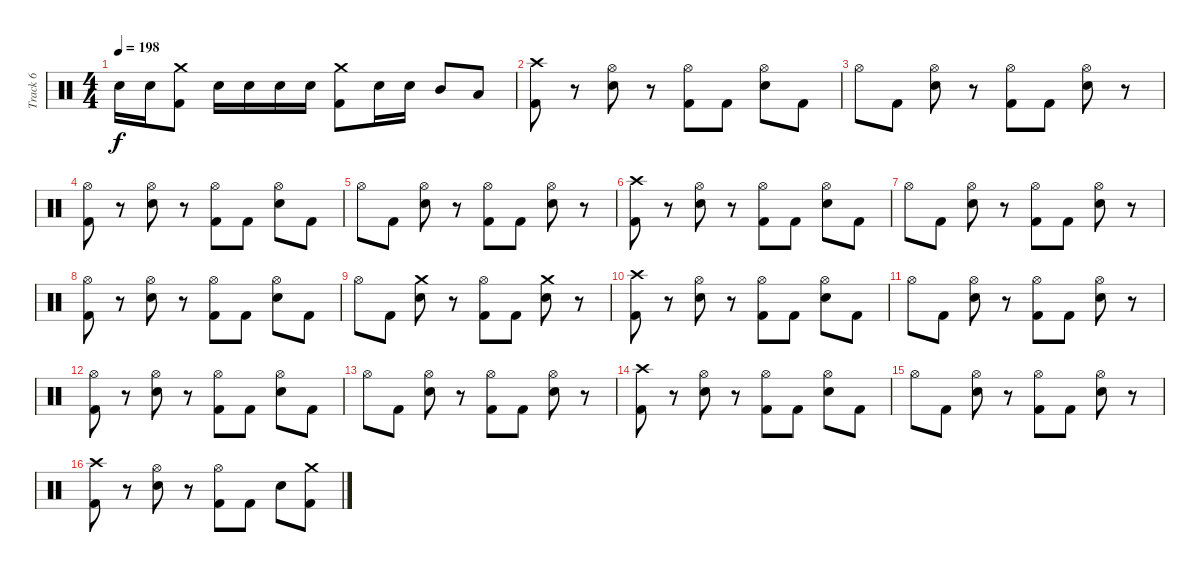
\track ("Track 6" "Track 6") {instrument percussion}
\staff {score}
\articulation defaults
\ts (4 4)
\tempo 198
\clef neutral
\ks c "Electric Snare (hit)".16{dy f} "Electric Snare (hit)".16
("Crash medium (hit)" "Kick (hit) 2").8 "Electric Snare (hit)".16 "Electric Snare (hit)".16 "Electric Snare (hit)".16 "Electric Snare (hit)".16 ("Crash medium (hit)" "Kick (hit) 2").8 "Electric Snare (hit)".16 "Electric Snare (hit)".16 "Mid Tom (hit)".8 "Low Tom (hit)".8 |
("Crash high (hit)" "Kick (hit) 2").8 r.8 ("Hi-Hat (open)" "Electric Snare (hit)").8 r.8 ("Hi-Hat (open)" "Kick (hit) 2").8 "Kick (hit) 2".8 ("Hi-Hat (open)" "Electric Snare (hit)").8 "Kick (hit) 2".8 |
"Hi-Hat (open)".8 "Kick (hit) 2".8 ("Hi-Hat (open)" "Electric Snare (hit)").8 r.8 ("Hi-Hat (open)" "Kick (hit) 2").8 "Kick (hit) 2".8 ("Hi-Hat (open)" "Electric Snare (hit)").8 r.8 |
("Hi-Hat (open)" "Kick (hit) 2").8 r.8 ("Hi-Hat (open)" "Electric Snare (hit)").8 r.8 ("Hi-Hat (open)" "Kick (hit) 2").8 "Kick (hit) 2".8 ("Hi-Hat (open)" "Electric Snare (hit)").8 "Kick (hit) 2".8 |
"Hi-Hat (open)".8 "Kick (hit) 2".8 ("Hi-Hat (open)" "Electric Snare (hit)").8 r.8 ("Hi-Hat (open)" "Kick (hit) 2").8 "Kick (hit) 2".8 ("Hi-Hat (open)" "Electric Snare (hit)").8 r.8 |
("Crash high (hit)" "Kick (hit) 2").8 r.8 ("Hi-Hat (open)" "Electric Snare (hit)").8 r.8 ("Hi-Hat (open)" "Kick (hit) 2").8 "Kick (hit) 2".8 ("Hi-Hat (open)" "Electric Snare (hit)").8 "Kick (hit) 2".8 |
"Hi-Hat (open)".8 "Kick (hit) 2".8 ("Hi-Hat (open)" "Electric Snare (hit)").8 r.8 ("Hi-Hat (open)" "Kick (hit) 2").8 "Kick (hit) 2".8 ("Hi-Hat (open)" "Electric Snare (hit)").8 r.8 |
("Hi-Hat (open)" "Kick (hit) 2").8 r.8 ("Hi-Hat (open)" "Electric Snare (hit)").8 r.8 ("Hi-Hat (open)" "Kick (hit) 2").8 "Kick (hit) 2".8 ("Hi-Hat (open)" "Electric Snare (hit)").8 "Kick (hit) 2".8 |
"Hi-Hat (open)".8 "Kick (hit) 2".8 ("Crash medium (hit)" "Electric Snare (hit)").8 r.8 ("Hi-Hat (open)" "Kick (hit) 2").8 "Kick (hit) 2".8 ("Crash medium (hit)" "Electric Snare (hit)").8 r.8 |
("Crash high (hit)" "Kick (hit) 2").8 r.8 ("Hi-Hat (open)" "Electric Snare (hit)").8 r.8 ("Hi-Hat (open)" "Kick (hit) 2").8 "Kick (hit) 2".8 ("Hi-Hat (open)" "Electric Snare (hit)").8 "Kick (hit) 2".8 |
"Hi-Hat (open)".8 "Kick (hit) 2".8 ("Hi-Hat (open)" "Electric Snare (hit)").8 r.8 ("Hi-Hat (open)" "Kick (hit) 2").8 "Kick (hit) 2".8 ("Hi-Hat (open)" "Electric Snare (hit)").8 r.8 |
("Hi-Hat (open)" "Kick (hit) 2").8 r.8 ("Hi-Hat (open)" "Electric Snare (hit)").8 r.8 ("Hi-Hat (open)" "Kick (hit) 2").8 "Kick (hit) 2".8 ("Hi-Hat (open)" "Electric Snare (hit)").8 "Kick (hit) 2".8 |
"Hi-Hat (open)".8 "Kick (hit) 2".8 ("Hi-Hat (open)" "Electric Snare (hit)").8 r.8 ("Hi-Hat (open)" "Kick (hit) 2").8 "Kick (hit) 2".8 ("Hi-Hat (open)" "Electric Snare (hit)").8 r.8 |
("Crash high (hit)" "Kick (hit) 2").8 r.8 ("Hi-Hat (open)" "Electric Snare (hit)").8 r.8 ("Hi-Hat (open)" "Kick (hit) 2").8 "Kick (hit) 2".8 ("Hi-Hat (open)" "Electric Snare (hit)").8 "Kick (hit) 2".8 |
"Hi-Hat (open)".8 "Kick (hit) 2".8 ("Hi-Hat (open)" "Electric Snare (hit)").8 r.8 ("Hi-Hat (open)" "Kick (hit) 2").8 "Kick (hit) 2".8 ("Hi-Hat (open)" "Electric Snare (hit)").8 r.8 |
("Crash high (hit)" "Kick (hit) 2").8 r.8 ("Hi-Hat (open)" "Electric Snare (hit)").8 r.8 ("Hi-Hat (open)" "Kick (hit) 2").8 "Kick (hit) 2".8 "Electric Snare (hit)".8 ("Crash medium (hit)" "Kick (hit) 2").8
